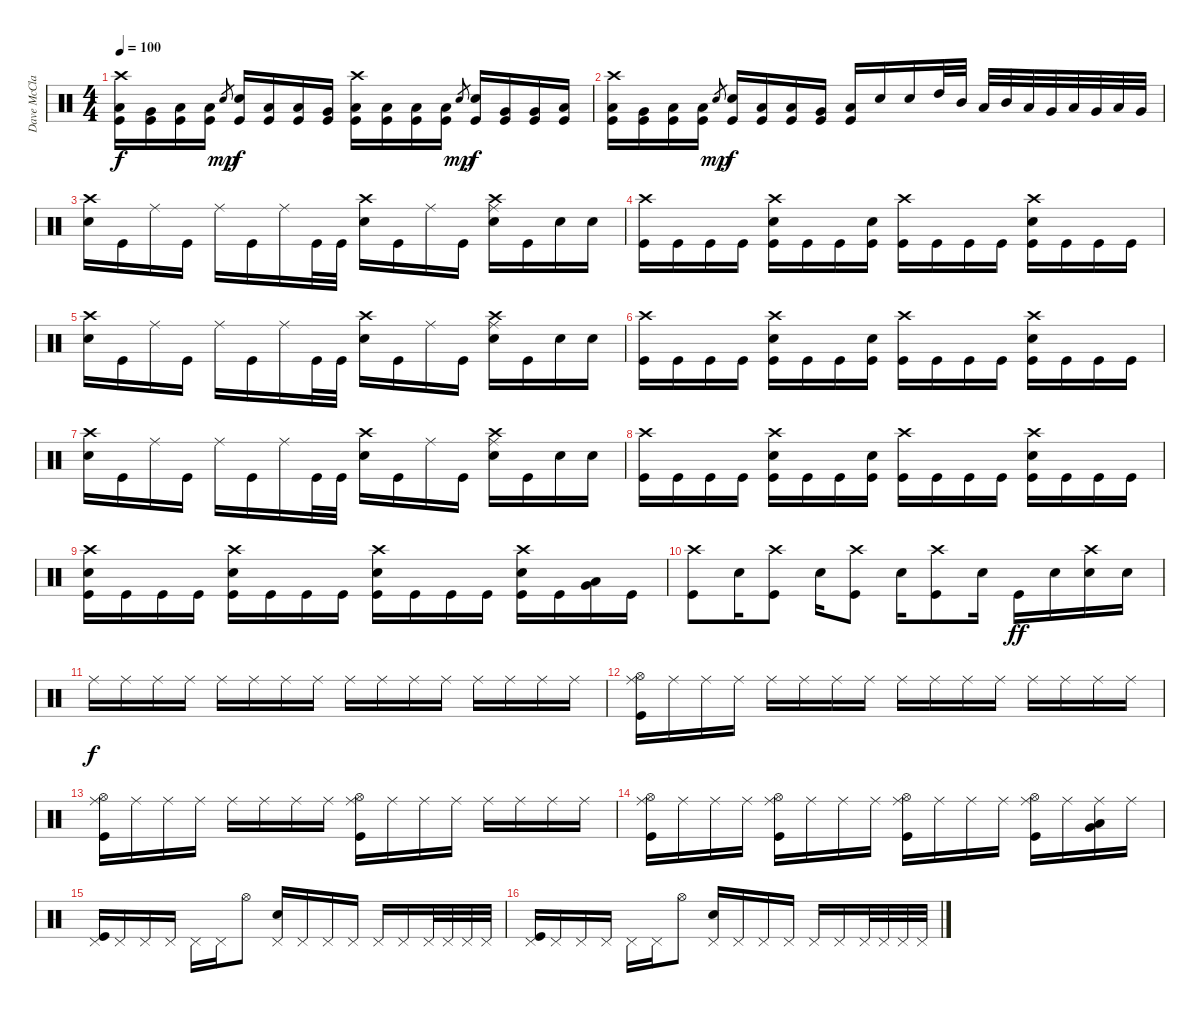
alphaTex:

\track ("Dave McClain" "Dave McCla") {instrument percussion}
\staff {score}
\articulation defaults
\ts (4 4)
\tempo 100
\clef neutral
\ks c
("Crash high (hit)" "Low Tom (hit)" "Kick (hit)").16{dy f} ("Very Low Tom (hit)" "Kick (hit)").16 ("Low Floor Tom (hit)" "Kick (hit)").16 ("Low Floor Tom (hit)" "Kick (hit)").16 "Snare (hit) 2".8{gr dy mp} ("Snare (hit) 2" "Kick (hit)").16{dy f} ("Low Floor Tom (hit)" "Kick (hit)").16 ("Low Tom (hit)" "Kick (hit)").16 ("Very Low Tom (hit)" "Kick (hit)").16 ("Crash high (hit)" "Low Floor Tom (hit)" "Kick (hit)").16 ("Low Floor Tom (hit)" "Kick (hit)").16 ("Low Floor Tom (hit)" "Kick (hit)").16 ("Low Floor Tom (hit)" "Kick (hit)").16 "Snare (hit) 2".8{gr dy mp} ("Snare (hit) 2" "Kick (hit)").16{dy f} ("Very Low Tom (hit)" "Kick (hit)").16 ("Very Low Tom (hit)" "Kick (hit)").16 ("Low Floor Tom (hit)" "Kick (hit)").16 |
("Crash high (hit)" "Low Tom (hit)" "Kick (hit)").16 ("Very Low Tom (hit)" "Kick (hit)").16 ("Low Floor Tom (hit)" "Kick (hit)").16 ("Low Floor Tom (hit)" "Kick (hit)").16 "Snare (hit) 2".8{gr dy mp} ("Snare (hit) 2" "Kick (hit)").16{dy f} ("Low Floor Tom (hit)" "Kick (hit)").16 ("Low Tom (hit)" "Kick (hit)").16 ("Very Low Tom (hit)" "Kick (hit)").16 ("Low Floor Tom (hit)" "Kick (hit)").16 "Snare (hit) 2".16 "Snare (hit) 2".16 "High Tom (hit)".32 "Mid Tom (hit)".32 "Low Tom (hit)".32 "Mid Tom (hit)".32 "Low Tom (hit)".32 "Very Low Tom (hit)".32 "Low Tom (hit)".32 "Very Low Tom (hit)".32 "Low Floor Tom (hit)".32 "Very Low Tom (hit)".32 |
("Crash high (hit)" "Snare (hit) 2").16 "Kick (hit)".16 "Ride (middle)".16 "Kick (hit)".16 "Ride (middle)".16 "Kick (hit)".16 "Ride (middle)".16 "Kick (hit)".32 "Kick (hit)".32 ("Crash high (hit)" "Snare (hit) 2").16 "Kick (hit)".16 "Ride (middle)".16 "Kick (hit)".16 ("Crash high (hit)" "Ride (middle)" "Snare (hit) 2").16 "Kick (hit)".16 "Snare (hit) 2".16 "Snare (hit) 2".16 |
("Crash high (hit)" "Kick (hit)").16 "Kick (hit)".16 "Kick (hit)".16 "Kick (hit)".16 ("Crash high (hit)" "Snare (hit) 2" "Kick (hit)").16 "Kick (hit)".16 "Kick (hit)".16 ("Snare (hit) 2" "Kick (hit)").16 ("Crash high (hit)" "Kick (hit)").16 "Kick (hit)".16 "Kick (hit)".16 "Kick (hit)".16 ("Crash high (hit)" "Snare (hit) 2" "Kick (hit)").16 "Kick (hit)".16 "Kick (hit)".16 "Kick (hit)".16 |
("Crash high (hit)" "Snare (hit) 2").16 "Kick (hit)".16 "Ride (middle)".16 "Kick (hit)".16 "Ride (middle)".16 "Kick (hit)".16 "Ride (middle)".16 "Kick (hit)".32 "Kick (hit)".32 ("Crash high (hit)" "Snare (hit) 2").16 "Kick (hit)".16 "Ride (middle)".16 "Kick (hit)".16 ("Crash high (hit)" "Ride (middle)" "Snare (hit) 2").16 "Kick (hit)".16 "Snare (hit) 2".16 "Snare (hit) 2".16 |
("Crash high (hit)" "Kick (hit)").16 "Kick (hit)".16 "Kick (hit)".16 "Kick (hit)".16 ("Crash high (hit)" "Snare (hit) 2" "Kick (hit)").16 "Kick (hit)".16 "Kick (hit)".16 ("Snare (hit) 2" "Kick (hit)").16 ("Crash high (hit)" "Kick (hit)").16 "Kick (hit)".16 "Kick (hit)".16 "Kick (hit)".16 ("Crash high (hit)" "Snare (hit) 2" "Kick (hit)").16 "Kick (hit)".16 "Kick (hit)".16 "Kick (hit)".16 |
("Crash high (hit)" "Snare (hit) 2").16 "Kick (hit)".16 "Ride (middle)".16 "Kick (hit)".16 "Ride (middle)".16 "Kick (hit)".16 "Ride (middle)".16 "Kick (hit)".32 "Kick (hit)".32 ("Crash high (hit)" "Snare (hit) 2").16 "Kick (hit)".16 "Ride (middle)".16 "Kick (hit)".16 ("Crash high (hit)" "Ride (middle)" "Snare (hit) 2").16 "Kick (hit)".16 "Snare (hit) 2".16 "Snare (hit) 2".16 |
("Crash high (hit)" "Kick (hit)").16 "Kick (hit)".16 "Kick (hit)".16 "Kick (hit)".16 ("Crash high (hit)" "Snare (hit) 2" "Kick (hit)").16 "Kick (hit)".16 "Kick (hit)".16 ("Snare (hit) 2" "Kick (hit)").16 ("Crash high (hit)" "Kick (hit)").16 "Kick (hit)".16 "Kick (hit)".16 "Kick (hit)".16 ("Crash high (hit)" "Snare (hit) 2" "Kick (hit)").16 "Kick (hit)".16 "Kick (hit)".16 "Kick (hit)".16 |
("Crash high (hit)" "Snare (hit) 2" "Kick (hit)").16 "Kick (hit)".16 "Kick (hit)".16 "Kick (hit)".16 ("Crash high (hit)" "Snare (hit) 2" "Kick (hit)").16 "Kick (hit)".16 "Kick (hit)".16 "Kick (hit)".16 ("Crash high (hit)" "Snare (hit) 2" "Kick (hit)").16 "Kick (hit)".16 "Kick (hit)".16 "Kick (hit)".16 ("Crash high (hit)" "Snare (hit) 2" "Kick (hit)").16 "Kick (hit)".16 ("Very Low Tom (hit)" "Low Floor Tom (hit)").16 "Kick (hit)".16 |
("Crash high (hit)" "Kick (hit)").8 "Snare (hit) 2".16 ("Crash high (hit)" "Kick (hit)").8 "Snare (hit) 2".16 ("Crash high (hit)" "Kick (hit)").8 "Snare (hit) 2".16 ("Crash high (hit)" "Kick (hit)").8 "Snare (hit) 2".16 "Kick (hit)".16{dy ff} "Snare (hit) 2".16 ("Crash high (hit)" "Snare (hit) 2").16 "Snare (hit) 2".16 |
"Ride (middle)".16{dy f} "Ride (middle)".16 "Ride (middle)".16 "Ride (middle)".16 "Ride (middle)".16 "Ride (middle)".16 "Ride (middle)".16 "Ride (middle)".16 "Ride (middle)".16 "Ride (middle)".16 "Ride (middle)".16 "Ride (middle)".16 "Ride (middle)".16 "Ride (middle)".16 "Ride (middle)".16 "Ride (middle)".16 |
("Hi-Hat (open)" "Ride (middle)" "Kick (hit)").16 "Ride (middle)".16 "Ride (middle)".16 "Ride (middle)".16 "Ride (middle)".16 "Ride (middle)".16 "Ride (middle)".16 "Ride (middle)".16 "Ride (middle)".16 "Ride (middle)".16 "Ride (middle)".16 "Ride (middle)".16 "Ride (middle)".16 "Ride (middle)".16 "Ride (middle)".16 "Ride (middle)".16 |
("Hi-Hat (open)" "Ride (middle)" "Kick (hit)").16 "Ride (middle)".16 "Ride (middle)".16 "Ride (middle)".16 "Ride (middle)".16 "Ride (middle)".16 "Ride (middle)".16 "Ride (middle)".16 ("Hi-Hat (open)" "Ride (middle)" "Kick (hit)").16 "Ride (middle)".16 "Ride (middle)".16 "Ride (middle)".16 "Ride (middle)".16 "Ride (middle)".16 "Ride (middle)".16 "Ride (middle)".16 |
("Hi-Hat (open)" "Ride (middle)" "Kick (hit)").16 "Ride (middle)".16 "Ride (middle)".16 "Ride (middle)".16 ("Hi-Hat (open)" "Ride (middle)" "Kick (hit)").16 "Ride (middle)".16 "Ride (middle)".16 "Ride (middle)".16 ("Hi-Hat (open)" "Ride (middle)" "Kick (hit)").16 "Ride (middle)".16 "Ride (middle)".16 "Ride (middle)".16 ("Hi-Hat (open)" "Ride (middle)" "Kick (hit)").16 "Ride (middle)".16 ("Ride (middle)" "Low Floor Tom (hit)" "Very Low Tom (hit)").16 "Ride (middle)".16 |
("Pedal Hi-Hat (hit)" "Kick (hit)").16 "Pedal Hi-Hat (hit)".16 "Pedal Hi-Hat (hit)".16 "Pedal Hi-Hat (hit)".16 "Pedal Hi-Hat (hit)".16 "Pedal Hi-Hat (hit)".16 "Hi-Hat (open)".8 ("Pedal Hi-Hat (hit)" "Snare (hit) 2").16 "Pedal Hi-Hat (hit)".16 "Pedal Hi-Hat (hit)".16 "Pedal Hi-Hat (hit)".16 "Pedal Hi-Hat (hit)".16 "Pedal Hi-Hat (hit)".16 "Pedal Hi-Hat (hit)".32 "Pedal Hi-Hat (hit)".32 "Pedal Hi-Hat (hit)".32 "Pedal Hi-Hat (hit)".32 |
("Pedal Hi-Hat (hit)" "Kick (hit)").16 "Pedal Hi-Hat (hit)".16 "Pedal Hi-Hat (hit)".16 "Pedal Hi-Hat (hit)".16 "Pedal Hi-Hat (hit)".16 "Pedal Hi-Hat (hit)".16 "Hi-Hat (open)".8 ("Pedal Hi-Hat (hit)" "Snare (hit) 2").16 "Pedal Hi-Hat (hit)".16 "Pedal Hi-Hat (hit)".16 "Pedal Hi-Hat (hit)".16 "Pedal Hi-Hat (hit)".16 "Pedal Hi-Hat (hit)".16 "Pedal Hi-Hat (hit)".32 "Pedal Hi-Hat (hit)".32 "Pedal Hi-Hat (hit)".32 "Pedal Hi-Hat (hit)".32
